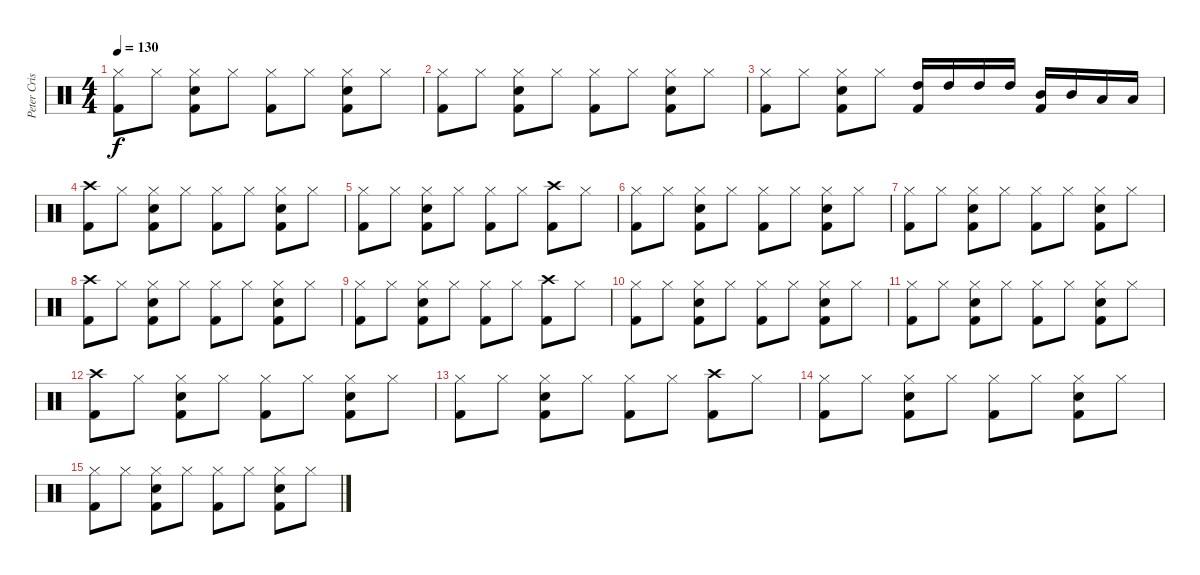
\track ("Peter Criss" "Peter Cris") {instrument percussion}
\staff {score}
\articulation defaults
\ts (4 4)
\tempo 130
\clef neutral
\ks c
("Hi-Hat (closed)" "Kick (hit) 2").8{dy f} "Hi-Hat (closed)".8 ("Hi-Hat (closed)" "Electric Snare (hit)" "Kick (hit) 2").8 "Hi-Hat (closed)".8 ("Hi-Hat (closed)" "Kick (hit) 2").8 "Hi-Hat (closed)".8 ("Hi-Hat (closed)" "Electric Snare (hit)" "Kick (hit) 2").8 "Hi-Hat (closed)".8 |
("Hi-Hat (closed)" "Kick (hit) 2").8 "Hi-Hat (closed)".8 ("Hi-Hat (closed)" "Electric Snare (hit)" "Kick (hit) 2").8 "Hi-Hat (closed)".8 ("Hi-Hat (closed)" "Kick (hit) 2").8 "Hi-Hat (closed)".8 ("Hi-Hat (closed)" "Electric Snare (hit)" "Kick (hit) 2").8 "Hi-Hat (closed)".8 |
("Hi-Hat (closed)" "Kick (hit) 2").8 "Hi-Hat (closed)".8 ("Hi-Hat (closed)" "Electric Snare (hit)" "Kick (hit) 2").8 "Hi-Hat (closed)".8 ("High Tom (hit)" "Kick (hit) 2").16 "High Tom (hit)".16 "High Tom (hit)".16 "High Tom (hit)".16 ("Mid Tom (hit)" "Kick (hit) 2").16 "Mid Tom (hit)".16 "Low Tom (hit)".16 "Low Tom (hit)".16 |
("Crash high (hit)" "Kick (hit) 2").8 "Hi-Hat (closed)".8 ("Hi-Hat (closed)" "Electric Snare (hit)" "Kick (hit) 2").8 "Hi-Hat (closed)".8 ("Hi-Hat (closed)" "Kick (hit) 2").8 "Hi-Hat (closed)".8 ("Hi-Hat (closed)" "Electric Snare (hit)" "Kick (hit) 2").8 "Hi-Hat (closed)".8 |
("Hi-Hat (closed)" "Kick (hit) 2").8 "Hi-Hat (closed)".8 ("Hi-Hat (closed)" "Electric Snare (hit)" "Kick (hit) 2").8 "Hi-Hat (closed)".8 ("Hi-Hat (closed)" "Kick (hit) 2").8 "Hi-Hat (closed)".8 ("Crash high (hit)" "Kick (hit) 2").8 "Hi-Hat (closed)".8 |
("Hi-Hat (closed)" "Kick (hit) 2").8 "Hi-Hat (closed)".8 ("Hi-Hat (closed)" "Electric Snare (hit)" "Kick (hit) 2").8 "Hi-Hat (closed)".8 ("Hi-Hat (closed)" "Kick (hit) 2").8 "Hi-Hat (closed)".8 ("Hi-Hat (closed)" "Electric Snare (hit)" "Kick (hit) 2").8 "Hi-Hat (closed)".8 |
("Hi-Hat (closed)" "Kick (hit) 2").8 "Hi-Hat (closed)".8 ("Hi-Hat (closed)" "Electric Snare (hit)" "Kick (hit) 2").8 "Hi-Hat (closed)".8 ("Hi-Hat (closed)" "Kick (hit) 2").8 "Hi-Hat (closed)".8 ("Hi-Hat (closed)" "Electric Snare (hit)" "Kick (hit) 2").8 "Hi-Hat (closed)".8 |
("Crash high (hit)" "Kick (hit) 2").8{volume 14} "Hi-Hat (closed)".8 ("Hi-Hat (closed)" "Electric Snare (hit)" "Kick (hit) 2").8 "Hi-Hat (closed)".8 ("Hi-Hat (closed)" "Kick (hit) 2").8 "Hi-Hat (closed)".8 ("Hi-Hat (closed)" "Electric Snare (hit)" "Kick (hit) 2").8 "Hi-Hat (closed)".8 |
("Hi-Hat (closed)" "Kick (hit) 2").8{volume 12} "Hi-Hat (closed)".8 ("Hi-Hat (closed)" "Electric Snare (hit)" "Kick (hit) 2").8 "Hi-Hat (closed)".8 ("Hi-Hat (closed)" "Kick (hit) 2").8 "Hi-Hat (closed)".8 ("Crash high (hit)" "Kick (hit) 2").8 "Hi-Hat (closed)".8 |
("Hi-Hat (closed)" "Kick (hit) 2").8{volume 10} "Hi-Hat (closed)".8 ("Hi-Hat (closed)" "Electric Snare (hit)" "Kick (hit) 2").8 "Hi-Hat (closed)".8 ("Hi-Hat (closed)" "Kick (hit) 2").8 "Hi-Hat (closed)".8 ("Hi-Hat (closed)" "Electric Snare (hit)" "Kick (hit) 2").8 "Hi-Hat (closed)".8 |
("Hi-Hat (closed)" "Kick (hit) 2").8{volume 8} "Hi-Hat (closed)".8 ("Hi-Hat (closed)" "Electric Snare (hit)" "Kick (hit) 2").8 "Hi-Hat (closed)".8 ("Hi-Hat (closed)" "Kick (hit) 2").8 "Hi-Hat (closed)".8 ("Hi-Hat (closed)" "Electric Snare (hit)" "Kick (hit) 2").8 "Hi-Hat (closed)".8 |
("Crash high (hit)" "Kick (hit) 2").8{volume 6} "Hi-Hat (closed)".8 ("Hi-Hat (closed)" "Electric Snare (hit)" "Kick (hit) 2").8 "Hi-Hat (closed)".8 ("Hi-Hat (closed)" "Kick (hit) 2").8 "Hi-Hat (closed)".8 ("Hi-Hat (closed)" "Electric Snare (hit)" "Kick (hit) 2").8 "Hi-Hat (closed)".8 |
("Hi-Hat (closed)" "Kick (hit) 2").8{volume 4} "Hi-Hat (closed)".8 ("Hi-Hat (closed)" "Electric Snare (hit)" "Kick (hit) 2").8 "Hi-Hat (closed)".8 ("Hi-Hat (closed)" "Kick (hit) 2").8 "Hi-Hat (closed)".8 ("Crash high (hit)" "Kick (hit) 2").8 "Hi-Hat (closed)".8 |
("Hi-Hat (closed)" "Kick (hit) 2").8{volume 2} "Hi-Hat (closed)".8 ("Hi-Hat (closed)" "Electric Snare (hit)" "Kick (hit) 2").8 "Hi-Hat (closed)".8 ("Hi-Hat (closed)" "Kick (hit) 2").8 "Hi-Hat (closed)".8 ("Hi-Hat (closed)" "Electric Snare (hit)" "Kick (hit) 2").8 "Hi-Hat (closed)".8 |
("Hi-Hat (closed)" "Kick (hit) 2").8{volume 0} "Hi-Hat (closed)".8 ("Hi-Hat (closed)" "Electric Snare (hit)" "Kick (hit) 2").8 "Hi-Hat (closed)".8 ("Hi-Hat (closed)" "Kick (hit) 2").8 "Hi-Hat (closed)".8 ("Hi-Hat (closed)" "Electric Snare (hit)" "Kick (hit) 2").8 "Hi-Hat (closed)".8
